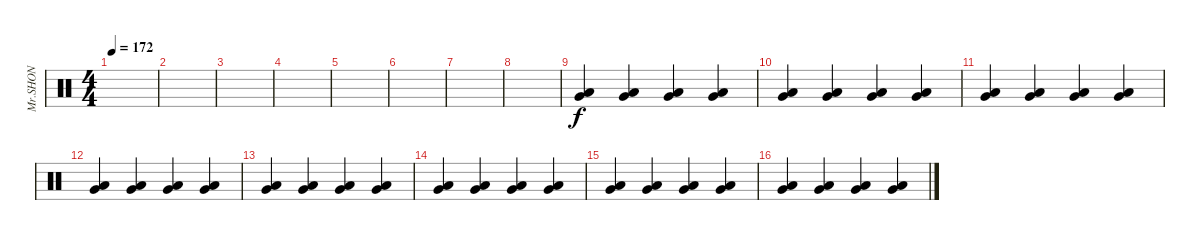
\track ("Mr.SHON" "Mr.SHON") {instrument percussion}
\staff {score}
\articulation defaults
\ts (4 4)
\tempo 172
\clef neutral
\ks c
|
|
|
|
|
|
|
|
("Low Floor Tom (hit)" "Very Low Tom (hit)").4 ("Low Floor Tom (hit)" "Very Low Tom (hit)").4 ("Low Floor Tom (hit)" "Very Low Tom (hit)").4 ("Low Floor Tom (hit)" "Very Low Tom (hit)").4 |
("Low Floor Tom (hit)" "Very Low Tom (hit)").4 ("Low Floor Tom (hit)" "Very Low Tom (hit)").4 ("Low Floor Tom (hit)" "Very Low Tom (hit)").4 ("Low Floor Tom (hit)" "Very Low Tom (hit)").4 |
("Low Floor Tom (hit)" "Very Low Tom (hit)").4 ("Low Floor Tom (hit)" "Very Low Tom (hit)").4 ("Low Floor Tom (hit)" "Very Low Tom (hit)").4 ("Low Floor Tom (hit)" "Very Low Tom (hit)").4 |
("Low Floor Tom (hit)" "Very Low Tom (hit)").4 ("Low Floor Tom (hit)" "Very Low Tom (hit)").4 ("Low Floor Tom (hit)" "Very Low Tom (hit)").4 ("Low Floor Tom (hit)" "Very Low Tom (hit)").4 |
("Low Floor Tom (hit)" "Very Low Tom (hit)").4 ("Low Floor Tom (hit)" "Very Low Tom (hit)").4 ("Low Floor Tom (hit)" "Very Low Tom (hit)").4 ("Low Floor Tom (hit)" "Very Low Tom (hit)").4 |
("Low Floor Tom (hit)" "Very Low Tom (hit)").4 ("Low Floor Tom (hit)" "Very Low Tom (hit)").4 ("Low Floor Tom (hit)" "Very Low Tom (hit)").4 ("Low Floor Tom (hit)" "Very Low Tom (hit)").4 |
("Low Floor Tom (hit)" "Very Low Tom (hit)").4 ("Low Floor Tom (hit)" "Very Low Tom (hit)").4 ("Low Floor Tom (hit)" "Very Low Tom (hit)").4 ("Low Floor Tom (hit)" "Very Low Tom (hit)").4 |
("Low Floor Tom (hit)" "Very Low Tom (hit)").4 ("Low Floor Tom (hit)" "Very Low Tom (hit)").4 ("Low Floor Tom (hit)" "Very Low Tom (hit)").4 ("Low Floor Tom (hit)" "Very Low Tom (hit)").4
